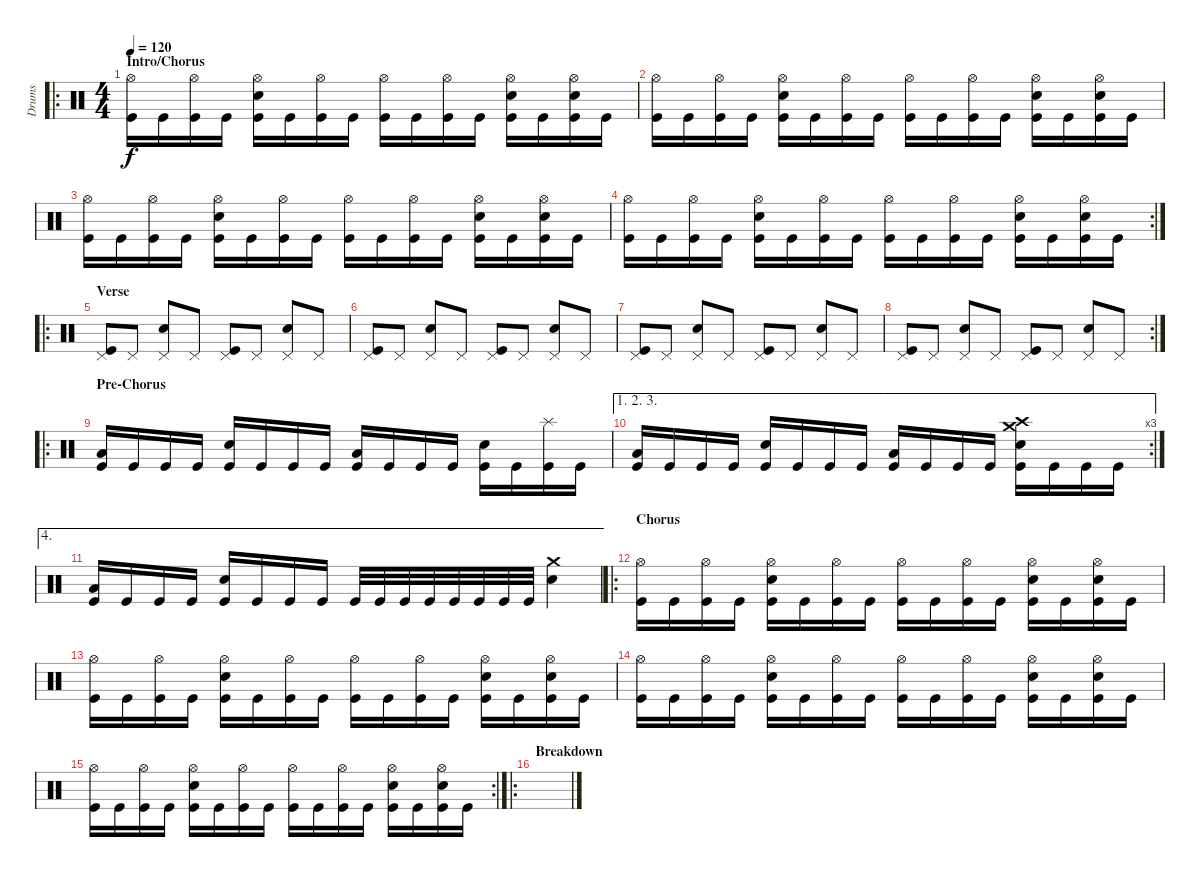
\track ("Drums" "Drums") {instrument percussion}
\staff {score}
\articulation defaults
\ro
\ts (4 4)
\section ("" "Intro/Chorus")
\tempo 120
\clef neutral
\ks c
("Hi-Hat (open)" "Kick (hit)").16{dy f} "Kick (hit)".16 ("Hi-Hat (open)" "Kick (hit)").16 "Kick (hit)".16 ("Hi-Hat (open)" "Snare (hit) 2" "Kick (hit)").16 "Kick (hit)".16 ("Hi-Hat (open)" "Kick (hit)").16 "Kick (hit)".16 ("Hi-Hat (open)" "Kick (hit)").16 "Kick (hit)".16 ("Hi-Hat (open)" "Kick (hit)").16 "Kick (hit)".16 ("Hi-Hat (open)" "Snare (hit) 2" "Kick (hit)").16 "Kick (hit)".16 ("Hi-Hat (open)" "Snare (hit) 2" "Kick (hit)").16 "Kick (hit)".16 |
("Hi-Hat (open)" "Kick (hit)").16 "Kick (hit)".16 ("Hi-Hat (open)" "Kick (hit)").16 "Kick (hit)".16 ("Hi-Hat (open)" "Snare (hit) 2" "Kick (hit)").16 "Kick (hit)".16 ("Hi-Hat (open)" "Kick (hit)").16 "Kick (hit)".16 ("Hi-Hat (open)" "Kick (hit)").16 "Kick (hit)".16 ("Hi-Hat (open)" "Kick (hit)").16 "Kick (hit)".16 ("Hi-Hat (open)" "Snare (hit) 2" "Kick (hit)").16 "Kick (hit)".16 ("Hi-Hat (open)" "Snare (hit) 2" "Kick (hit)").16 "Kick (hit)".16 |
("Hi-Hat (open)" "Kick (hit)").16 "Kick (hit)".16 ("Hi-Hat (open)" "Kick (hit)").16 "Kick (hit)".16 ("Hi-Hat (open)" "Snare (hit) 2" "Kick (hit)").16 "Kick (hit)".16 ("Hi-Hat (open)" "Kick (hit)").16 "Kick (hit)".16 ("Hi-Hat (open)" "Kick (hit)").16 "Kick (hit)".16 ("Hi-Hat (open)" "Kick (hit)").16 "Kick (hit)".16 ("Hi-Hat (open)" "Snare (hit) 2" "Kick (hit)").16 "Kick (hit)".16 ("Hi-Hat (open)" "Snare (hit) 2" "Kick (hit)").16 "Kick (hit)".16 |
\rc 2
("Hi-Hat (open)" "Kick (hit)").16 "Kick (hit)".16 ("Hi-Hat (open)" "Kick (hit)").16 "Kick (hit)".16 ("Hi-Hat (open)" "Snare (hit) 2" "Kick (hit)").16 "Kick (hit)".16 ("Hi-Hat (open)" "Kick (hit)").16 "Kick (hit)".16 ("Hi-Hat (open)" "Kick (hit)").16 "Kick (hit)".16 ("Hi-Hat (open)" "Kick (hit)").16 "Kick (hit)".16 ("Hi-Hat (open)" "Snare (hit) 2" "Kick (hit)").16 "Kick (hit)".16 ("Hi-Hat (open)" "Snare (hit) 2" "Kick (hit)").16 "Kick (hit)".16 |
\ro
\section ("" "Verse")
("Pedal Hi-Hat (hit)" "Kick (hit)").8 "Pedal Hi-Hat (hit)".8 ("Pedal Hi-Hat (hit)" "Snare (hit) 2").8 "Pedal Hi-Hat (hit)".8 ("Pedal Hi-Hat (hit)" "Kick (hit)").8 "Pedal Hi-Hat (hit)".8 ("Pedal Hi-Hat (hit)" "Snare (hit) 2").8 "Pedal Hi-Hat (hit)".8 |
("Pedal Hi-Hat (hit)" "Kick (hit)").8 "Pedal Hi-Hat (hit)".8 ("Pedal Hi-Hat (hit)" "Snare (hit) 2").8 "Pedal Hi-Hat (hit)".8 ("Pedal Hi-Hat (hit)" "Kick (hit)").8 "Pedal Hi-Hat (hit)".8 ("Pedal Hi-Hat (hit)" "Snare (hit) 2").8 "Pedal Hi-Hat (hit)".8 |
("Pedal Hi-Hat (hit)" "Kick (hit)").8 "Pedal Hi-Hat (hit)".8 ("Pedal Hi-Hat (hit)" "Snare (hit) 2").8 "Pedal Hi-Hat (hit)".8 ("Pedal Hi-Hat (hit)" "Kick (hit)").8 "Pedal Hi-Hat (hit)".8 ("Pedal Hi-Hat (hit)" "Snare (hit) 2").8 "Pedal Hi-Hat (hit)".8 |
\rc 2
("Pedal Hi-Hat (hit)" "Kick (hit)").8 "Pedal Hi-Hat (hit)".8 ("Pedal Hi-Hat (hit)" "Snare (hit) 2").8 "Pedal Hi-Hat (hit)".8 ("Pedal Hi-Hat (hit)" "Kick (hit)").8 "Pedal Hi-Hat (hit)".8 ("Pedal Hi-Hat (hit)" "Snare (hit) 2").8 "Pedal Hi-Hat (hit)".8 |
\ro
\section ("" "Pre-Chorus")
("Low Floor Tom (hit)" "Kick (hit)").16 "Kick (hit)".16 "Kick (hit)".16 "Kick (hit)".16 ("Snare (hit) 2" "Kick (hit)").16 "Kick (hit)".16 "Kick (hit)".16 "Kick (hit)".16 ("Low Floor Tom (hit)" "Kick (hit)").16 "Kick (hit)".16 "Kick (hit)".16 "Kick (hit)".16 ("Snare (hit) 2" "Kick (hit)").16 "Kick (hit)".16 ("Splash (hit)" "Kick (hit)").16 "Kick (hit)".16 |
\ae (1 2 3)
\rc 3
("Low Floor Tom (hit)" "Kick (hit)").16 "Kick (hit)".16 "Kick (hit)".16 "Kick (hit)".16 ("Snare (hit) 2" "Kick (hit)").16 "Kick (hit)".16 "Kick (hit)".16 "Kick (hit)".16 ("Low Floor Tom (hit)" "Kick (hit)").16 "Kick (hit)".16 "Kick (hit)".16 "Kick (hit)".16 ("Crash medium (hit)" "Crash high (hit)" "Snare (hit) 2" "Kick (hit)").16 "Kick (hit)".16 "Kick (hit)".16 "Kick (hit)".16 |
\ae 4
("Low Floor Tom (hit)" "Kick (hit)").16 "Kick (hit)".16 "Kick (hit)".16 "Kick (hit)".16 ("Snare (hit) 2" "Kick (hit)").16 "Kick (hit)".16 "Kick (hit)".16 "Kick (hit)".16 "Kick (hit)".32 "Kick (hit)".32 "Kick (hit)".32 "Kick (hit)".32 "Kick (hit)".32 "Kick (hit)".32 "Kick (hit)".32 "Kick (hit)".32 ("Crash medium (hit)" "Snare (hit) 2").4 |
\ro
\section ("" "Chorus")
("Hi-Hat (open)" "Kick (hit)").16 "Kick (hit)".16 ("Hi-Hat (open)" "Kick (hit)").16 "Kick (hit)".16 ("Hi-Hat (open)" "Snare (hit) 2" "Kick (hit)").16 "Kick (hit)".16 ("Hi-Hat (open)" "Kick (hit)").16 "Kick (hit)".16 ("Hi-Hat (open)" "Kick (hit)").16 "Kick (hit)".16 ("Hi-Hat (open)" "Kick (hit)").16 "Kick (hit)".16 ("Hi-Hat (open)" "Snare (hit) 2" "Kick (hit)").16 "Kick (hit)".16 ("Hi-Hat (open)" "Snare (hit) 2" "Kick (hit)").16 "Kick (hit)".16 |
("Hi-Hat (open)" "Kick (hit)").16 "Kick (hit)".16 ("Hi-Hat (open)" "Kick (hit)").16 "Kick (hit)".16 ("Hi-Hat (open)" "Snare (hit) 2" "Kick (hit)").16 "Kick (hit)".16 ("Hi-Hat (open)" "Kick (hit)").16 "Kick (hit)".16 ("Hi-Hat (open)" "Kick (hit)").16 "Kick (hit)".16 ("Hi-Hat (open)" "Kick (hit)").16 "Kick (hit)".16 ("Hi-Hat (open)" "Snare (hit) 2" "Kick (hit)").16 "Kick (hit)".16 ("Hi-Hat (open)" "Snare (hit) 2" "Kick (hit)").16 "Kick (hit)".16 |
("Hi-Hat (open)" "Kick (hit)").16 "Kick (hit)".16 ("Hi-Hat (open)" "Kick (hit)").16 "Kick (hit)".16 ("Hi-Hat (open)" "Snare (hit) 2" "Kick (hit)").16 "Kick (hit)".16 ("Hi-Hat (open)" "Kick (hit)").16 "Kick (hit)".16 ("Hi-Hat (open)" "Kick (hit)").16 "Kick (hit)".16 ("Hi-Hat (open)" "Kick (hit)").16 "Kick (hit)".16 ("Hi-Hat (open)" "Snare (hit) 2" "Kick (hit)").16 "Kick (hit)".16 ("Hi-Hat (open)" "Snare (hit) 2" "Kick (hit)").16 "Kick (hit)".16 |
\rc 2
("Hi-Hat (open)" "Kick (hit)").16 "Kick (hit)".16 ("Hi-Hat (open)" "Kick (hit)").16 "Kick (hit)".16 ("Hi-Hat (open)" "Snare (hit) 2" "Kick (hit)").16 "Kick (hit)".16 ("Hi-Hat (open)" "Kick (hit)").16 "Kick (hit)".16 ("Hi-Hat (open)" "Kick (hit)").16 "Kick (hit)".16 ("Hi-Hat (open)" "Kick (hit)").16 "Kick (hit)".16 ("Hi-Hat (open)" "Snare (hit) 2" "Kick (hit)").16 "Kick (hit)".16 ("Hi-Hat (open)" "Snare (hit) 2" "Kick (hit)").16 "Kick (hit)".16 |
\ro
\section ("" "Breakdown")
